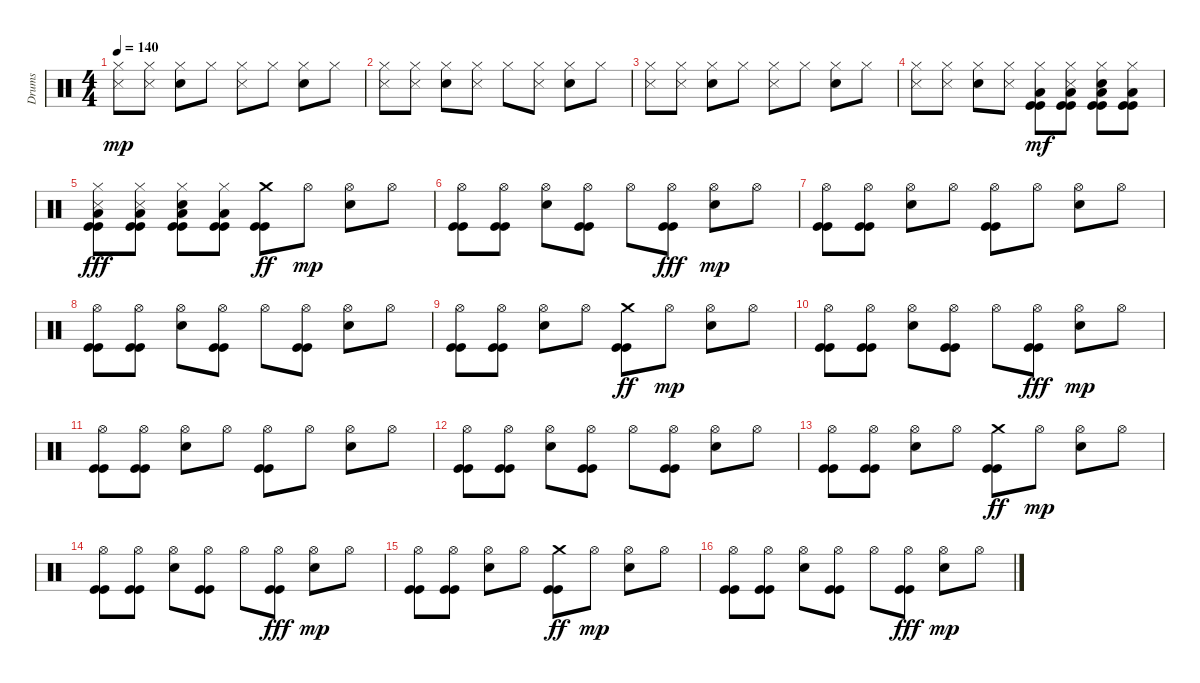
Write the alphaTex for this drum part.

\track ("Drums" "Drums") {instrument percussion}
\staff {score}
\articulation defaults
\ts (4 4)
\tempo 140
\clef neutral
\ks c
("Snare (side stick) 3" "Hi-Hat (closed)").8{dy mp} ("Snare (side stick) 3" "Hi-Hat (closed)").8 ("Hi-Hat (closed)" "Hand Clap (hit)").8 "Hi-Hat (closed)".8 ("Hi-Hat (closed)" "Snare (side stick) 3").8 "Hi-Hat (closed)".8 ("Hi-Hat (closed)" "Hand Clap (hit)").8 "Hi-Hat (closed)".8 |
("Snare (side stick) 3" "Hi-Hat (closed)").8 ("Snare (side stick) 3" "Hi-Hat (closed)").8 ("Hi-Hat (closed)" "Hand Clap (hit)").8 ("Hi-Hat (closed)" "Snare (side stick) 3").8 "Hi-Hat (closed)".8 ("Hi-Hat (closed)" "Snare (side stick) 3").8 ("Hi-Hat (closed)" "Hand Clap (hit)").8 "Hi-Hat (closed)".8 |
("Snare (side stick) 3" "Hi-Hat (closed)").8 ("Snare (side stick) 3" "Hi-Hat (closed)").8 ("Hi-Hat (closed)" "Hand Clap (hit)").8 "Hi-Hat (closed)".8 ("Hi-Hat (closed)" "Snare (side stick) 3").8 "Hi-Hat (closed)".8 ("Hi-Hat (closed)" "Hand Clap (hit)").8 "Hi-Hat (closed)".8 |
("Snare (side stick) 3" "Hi-Hat (closed)").8 ("Snare (side stick) 3" "Hi-Hat (closed)").8 ("Hi-Hat (closed)" "Hand Clap (hit)").8 ("Hi-Hat (closed)" "Snare (side stick) 3").8 ("Kick (hit)" "Hi-Hat (closed)" "Kick (hit)" "Low Floor Tom (hit)").8{dy mf} ("Hi-Hat (closed)" "Snare (side stick) 3" "Kick (hit)" "Kick (hit)" "Low Floor Tom (hit)").8 ("Hi-Hat (closed)" "Hand Clap (hit)" "Kick (hit)" "Kick (hit)" "Low Floor Tom (hit)").8 ("Hi-Hat (closed)" "Kick (hit)" "Kick (hit)" "Low Floor Tom (hit)").8 |
("Snare (side stick) 3" "Hi-Hat (closed)" "Kick (hit)" "Kick (hit)" "Low Floor Tom (hit)").8{dy fff} ("Snare (side stick) 3" "Hi-Hat (closed)" "Kick (hit)" "Kick (hit)" "Low Floor Tom (hit)").8 ("Hi-Hat (closed)" "Hand Clap (hit)" "Kick (hit)" "Kick (hit)" "Low Floor Tom (hit)").8 ("Hi-Hat (closed)" "Kick (hit)" "Kick (hit)" "Low Floor Tom (hit)").8 ("Kick (hit)" "Kick (hit)" "Crash medium (hit)").8{dy ff} "Hi-Hat (open)".8{dy mp} ("Electric Snare (hit)" "Hi-Hat (open)").8 "Hi-Hat (open)".8 |
("Kick (hit)" "Kick (hit)" "Hi-Hat (open)").8 ("Kick (hit)" "Kick (hit)" "Hi-Hat (open)").8 ("Electric Snare (hit)" "Hi-Hat (open)").8 ("Kick (hit)" "Kick (hit)" "Hi-Hat (open)").8 "Hi-Hat (open)".8 ("Kick (hit)" "Hi-Hat (open)" "Kick (hit)").8{dy fff} ("Electric Snare (hit)" "Hi-Hat (open)").8{dy mp} "Hi-Hat (open)".8 |
("Kick (hit)" "Kick (hit)" "Hi-Hat (open)").8 ("Kick (hit)" "Kick (hit)" "Hi-Hat (open)").8 ("Electric Snare (hit)" "Hi-Hat (open)").8 "Hi-Hat (open)".8 ("Kick (hit)" "Kick (hit)" "Hi-Hat (open)").8 "Hi-Hat (open)".8 ("Electric Snare (hit)" "Hi-Hat (open)").8 "Hi-Hat (open)".8 |
("Kick (hit)" "Kick (hit)" "Hi-Hat (open)").8 ("Kick (hit)" "Kick (hit)" "Hi-Hat (open)").8 ("Electric Snare (hit)" "Hi-Hat (open)").8 ("Kick (hit)" "Kick (hit)" "Hi-Hat (open)").8 "Hi-Hat (open)".8 ("Kick (hit)" "Kick (hit)" "Hi-Hat (open)").8 ("Electric Snare (hit)" "Hi-Hat (open)").8 "Hi-Hat (open)".8 |
("Kick (hit)" "Kick (hit)" "Hi-Hat (open)").8 ("Kick (hit)" "Kick (hit)" "Hi-Hat (open)").8 ("Hi-Hat (open)" "Electric Snare (hit)").8 "Hi-Hat (open)".8 ("Kick (hit)" "Kick (hit)" "Crash medium (hit)").8{dy ff} "Hi-Hat (open)".8{dy mp} ("Electric Snare (hit)" "Hi-Hat (open)").8 "Hi-Hat (open)".8 |
("Kick (hit)" "Kick (hit)" "Hi-Hat (open)").8 ("Kick (hit)" "Kick (hit)" "Hi-Hat (open)").8 ("Electric Snare (hit)" "Hi-Hat (open)").8 ("Kick (hit)" "Kick (hit)" "Hi-Hat (open)").8 "Hi-Hat (open)".8 ("Kick (hit)" "Hi-Hat (open)" "Kick (hit)").8{dy fff} ("Electric Snare (hit)" "Hi-Hat (open)").8{dy mp} "Hi-Hat (open)".8 |
("Kick (hit)" "Kick (hit)" "Hi-Hat (open)").8 ("Kick (hit)" "Kick (hit)" "Hi-Hat (open)").8 ("Electric Snare (hit)" "Hi-Hat (open)").8 "Hi-Hat (open)".8 ("Kick (hit)" "Kick (hit)" "Hi-Hat (open)").8 "Hi-Hat (open)".8 ("Electric Snare (hit)" "Hi-Hat (open)").8 "Hi-Hat (open)".8 |
("Kick (hit)" "Kick (hit)" "Hi-Hat (open)").8 ("Kick (hit)" "Kick (hit)" "Hi-Hat (open)").8 ("Electric Snare (hit)" "Hi-Hat (open)").8 ("Kick (hit)" "Kick (hit)" "Hi-Hat (open)").8 "Hi-Hat (open)".8 ("Kick (hit)" "Kick (hit)" "Hi-Hat (open)").8 ("Electric Snare (hit)" "Hi-Hat (open)").8 "Hi-Hat (open)".8 |
("Kick (hit)" "Kick (hit)" "Hi-Hat (open)").8 ("Kick (hit)" "Kick (hit)" "Hi-Hat (open)").8 ("Hi-Hat (open)" "Electric Snare (hit)").8 "Hi-Hat (open)".8 ("Kick (hit)" "Kick (hit)" "Crash medium (hit)").8{dy ff} "Hi-Hat (open)".8{dy mp} ("Electric Snare (hit)" "Hi-Hat (open)").8 "Hi-Hat (open)".8 |
("Kick (hit)" "Kick (hit)" "Hi-Hat (open)").8 ("Kick (hit)" "Kick (hit)" "Hi-Hat (open)").8 ("Electric Snare (hit)" "Hi-Hat (open)").8 ("Kick (hit)" "Kick (hit)" "Hi-Hat (open)").8 "Hi-Hat (open)".8 ("Kick (hit)" "Hi-Hat (open)" "Kick (hit)").8{dy fff} ("Electric Snare (hit)" "Hi-Hat (open)").8{dy mp} "Hi-Hat (open)".8 |
("Kick (hit)" "Kick (hit)" "Hi-Hat (open)").8 ("Kick (hit)" "Kick (hit)" "Hi-Hat (open)").8 ("Hi-Hat (open)" "Electric Snare (hit)").8 "Hi-Hat (open)".8 ("Kick (hit)" "Kick (hit)" "Crash medium (hit)").8{dy ff} "Hi-Hat (open)".8{dy mp} ("Electric Snare (hit)" "Hi-Hat (open)").8 "Hi-Hat (open)".8 |
("Kick (hit)" "Kick (hit)" "Hi-Hat (open)").8 ("Kick (hit)" "Kick (hit)" "Hi-Hat (open)").8 ("Electric Snare (hit)" "Hi-Hat (open)").8 ("Kick (hit)" "Kick (hit)" "Hi-Hat (open)").8 "Hi-Hat (open)".8 ("Kick (hit)" "Hi-Hat (open)" "Kick (hit)").8{dy fff} ("Electric Snare (hit)" "Hi-Hat (open)").8{dy mp} "Hi-Hat (open)".8
